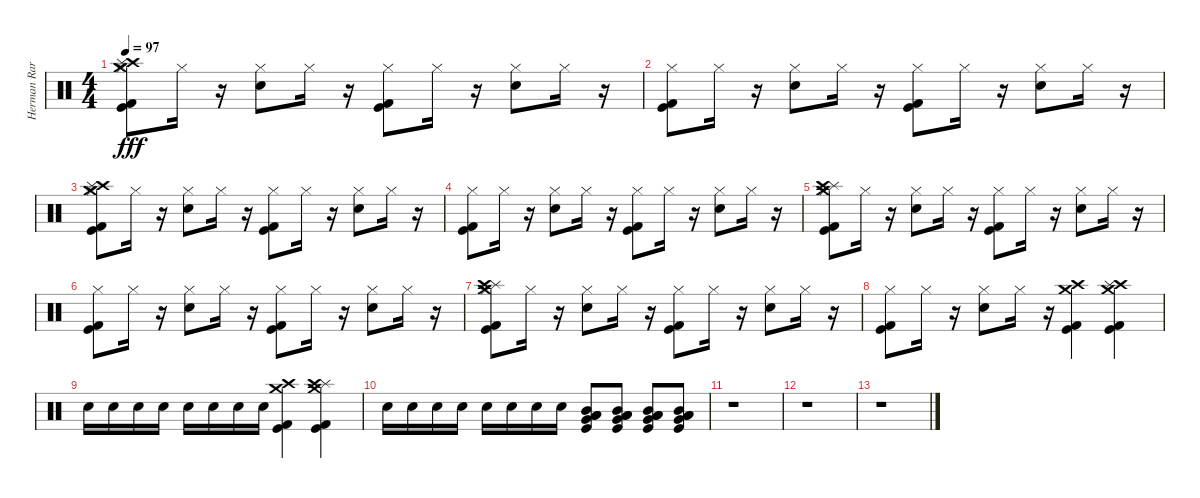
\track ("Herman Rarebell" "Herman Rar") {instrument percussion}
\staff {score}
\articulation defaults
\ts (4 4)
\tempo 97
\clef neutral
\ks c
("Hi-Hat (closed)" "Crash high (hit)" "Splash (hit)" "Crash medium (hit)" "Kick (hit)" "Kick (hit) 2").8{dy fff} "Hi-Hat (closed)".16 r.16 ("Snare (hit) 2" "Hi-Hat (closed)").8 "Hi-Hat (closed)".16 r.16 ("Kick (hit) 2" "Kick (hit)" "Hi-Hat (closed)").8 "Hi-Hat (closed)".16 r.16 ("Snare (hit) 2" "Hi-Hat (closed)").8 "Hi-Hat (closed)".16 r.16 |
("Hi-Hat (closed)" "Kick (hit)" "Kick (hit) 2").8 "Hi-Hat (closed)".16 r.16 ("Snare (hit) 2" "Hi-Hat (closed)").8 "Hi-Hat (closed)".16 r.16 ("Kick (hit) 2" "Kick (hit)" "Hi-Hat (closed)").8 "Hi-Hat (closed)".16 r.16 ("Snare (hit) 2" "Hi-Hat (closed)").8 "Hi-Hat (closed)".16 r.16 |
("Hi-Hat (closed)" "Crash high (hit)" "Splash (hit)" "Crash medium (hit)" "Kick (hit)" "Kick (hit) 2").8 "Hi-Hat (closed)".16 r.16 ("Snare (hit) 2" "Hi-Hat (closed)").8 "Hi-Hat (closed)".16 r.16 ("Kick (hit) 2" "Kick (hit)" "Hi-Hat (closed)").8 "Hi-Hat (closed)".16 r.16 ("Snare (hit) 2" "Hi-Hat (closed)").8 "Hi-Hat (closed)".16 r.16 |
("Hi-Hat (closed)" "Kick (hit)" "Kick (hit) 2").8 "Hi-Hat (closed)".16 r.16 ("Snare (hit) 2" "Hi-Hat (closed)").8 "Hi-Hat (closed)".16 r.16 ("Kick (hit) 2" "Kick (hit)" "Hi-Hat (closed)").8 "Hi-Hat (closed)".16 r.16 ("Snare (hit) 2" "Hi-Hat (closed)").8 "Hi-Hat (closed)".16 r.16 |
("Kick (hit) 2" "Kick (hit)" "Crash medium (hit)" "Splash (hit)" "Crash high (hit)" "Hi-Hat (closed)").8 "Hi-Hat (closed)".16 r.16 ("Snare (hit) 2" "Hi-Hat (closed)").8 "Hi-Hat (closed)".16 r.16 ("Kick (hit) 2" "Kick (hit)" "Hi-Hat (closed)").8 "Hi-Hat (closed)".16 r.16 ("Snare (hit) 2" "Hi-Hat (closed)").8 "Hi-Hat (closed)".16 r.16 |
("Hi-Hat (closed)" "Kick (hit)" "Kick (hit) 2").8 "Hi-Hat (closed)".16 r.16 ("Snare (hit) 2" "Hi-Hat (closed)").8 "Hi-Hat (closed)".16 r.16 ("Kick (hit) 2" "Kick (hit)" "Hi-Hat (closed)").8 "Hi-Hat (closed)".16 r.16 ("Snare (hit) 2" "Hi-Hat (closed)").8 "Hi-Hat (closed)".16 r.16 |
("Hi-Hat (closed)" "Kick (hit)" "Kick (hit) 2" "Crash medium (hit)" "Splash (hit)" "Crash high (hit)").8 "Hi-Hat (closed)".16 r.16 ("Snare (hit) 2" "Hi-Hat (closed)").8 "Hi-Hat (closed)".16 r.16 ("Kick (hit) 2" "Kick (hit)" "Hi-Hat (closed)").8 "Hi-Hat (closed)".16 r.16 ("Snare (hit) 2" "Hi-Hat (closed)").8 "Hi-Hat (closed)".16 r.16 |
("Hi-Hat (closed)" "Kick (hit)" "Kick (hit) 2").8 "Hi-Hat (closed)".16 r.16 ("Hi-Hat (closed)" "Snare (hit) 2").8 "Hi-Hat (closed)".16 r.16 ("Kick (hit) 2" "Kick (hit)" "Crash high (hit)" "Crash medium (hit)").4 ("Kick (hit) 2" "Kick (hit)" "Crash high (hit)" "Crash medium (hit)" "Splash (hit)").4 |
"Snare (hit) 2".16 "Snare (hit) 2".16 "Snare (hit) 2".16 "Snare (hit) 2".16 "Snare (hit) 2".16 "Snare (hit) 2".16 "Snare (hit) 2".16 "Snare (hit) 2".16 ("Kick (hit) 2" "Kick (hit)" "Crash medium (hit)" "Crash high (hit)").4 ("Kick (hit)" "Kick (hit) 2" "Crash medium (hit)" "Splash (hit)" "Crash high (hit)").4 |
"Snare (hit) 2".16 "Snare (hit) 2".16 "Snare (hit) 2".16 "Snare (hit) 2".16 "Snare (hit) 2".16 "Snare (hit) 2".16 "Snare (hit) 2".16 "Snare (hit) 2".16 ("Mid Tom (hit)" "Low Tom (hit)" "Very Low Tom (hit)" "Low Floor Tom (hit)" "Kick (hit)").8 ("Mid Tom (hit)" "Low Tom (hit)" "Very Low Tom (hit)" "Low Floor Tom (hit)" "Kick (hit)").8 ("Mid Tom (hit)" "Low Tom (hit)" "Very Low Tom (hit)" "Low Floor Tom (hit)" "Kick (hit)").8 ("Mid Tom (hit)" "Low Tom (hit)" "Very Low Tom (hit)" "Low Floor Tom (hit)" "Kick (hit)").8 |
r.1 |
r.1 |
r.1
